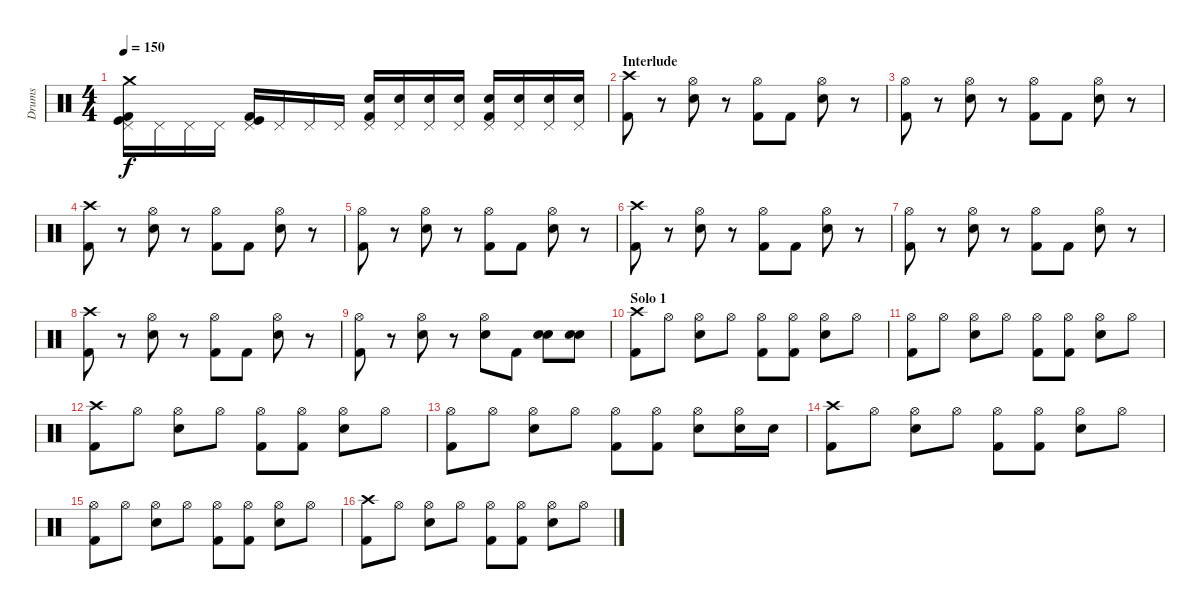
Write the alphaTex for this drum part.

\track ("Drums" "Drums") {instrument percussion}
\staff {score}
\articulation defaults
\ts (4 4)
\tempo 150
\clef neutral
\ks c
("Pedal Hi-Hat (hit)" "Kick (hit) 2" "Kick (hit)" "Crash medium (hit)").16{dy f} "Pedal Hi-Hat (hit)".16 "Pedal Hi-Hat (hit)".16 "Pedal Hi-Hat (hit)".16 ("Pedal Hi-Hat (hit)" "Kick (hit) 2" "Kick (hit)").16 "Pedal Hi-Hat (hit)".16 "Pedal Hi-Hat (hit)".16 "Pedal Hi-Hat (hit)".16 ("Pedal Hi-Hat (hit)" "Snare (hit) 2" "Kick (hit) 2").16 ("Pedal Hi-Hat (hit)" "Snare (hit) 2").16 ("Pedal Hi-Hat (hit)" "Snare (hit) 2").16 ("Pedal Hi-Hat (hit)" "Snare (hit) 2").16 ("Pedal Hi-Hat (hit)" "Snare (hit) 2" "Kick (hit) 2").16 ("Pedal Hi-Hat (hit)" "Snare (hit) 2").16 ("Pedal Hi-Hat (hit)" "Snare (hit) 2").16 ("Pedal Hi-Hat (hit)" "Snare (hit) 2").16 |
\section ("" "Interlude")
("Crash high (hit)" "Kick (hit) 2").8 r.8 ("Hi-Hat (open)" "Snare (hit) 2").8 r.8 ("Hi-Hat (open)" "Kick (hit) 2").8 "Kick (hit) 2".8 ("Hi-Hat (open)" "Snare (hit) 2").8 r.8 |
("Hi-Hat (open)" "Kick (hit) 2").8 r.8 ("Hi-Hat (open)" "Snare (hit) 2").8 r.8 ("Hi-Hat (open)" "Kick (hit) 2").8 "Kick (hit) 2".8 ("Hi-Hat (open)" "Snare (hit) 2").8 r.8 |
("Crash high (hit)" "Kick (hit) 2").8 r.8 ("Hi-Hat (open)" "Snare (hit) 2").8 r.8 ("Hi-Hat (open)" "Kick (hit) 2").8 "Kick (hit) 2".8 ("Hi-Hat (open)" "Snare (hit) 2").8 r.8 |
("Hi-Hat (open)" "Kick (hit) 2").8 r.8 ("Hi-Hat (open)" "Snare (hit) 2").8 r.8 ("Hi-Hat (open)" "Kick (hit) 2").8 "Kick (hit) 2".8 ("Hi-Hat (open)" "Snare (hit) 2").8 r.8 |
("Crash high (hit)" "Kick (hit) 2").8 r.8 ("Hi-Hat (open)" "Snare (hit) 2").8 r.8 ("Hi-Hat (open)" "Kick (hit) 2").8 "Kick (hit) 2".8 ("Hi-Hat (open)" "Snare (hit) 2").8 r.8 |
("Hi-Hat (open)" "Kick (hit) 2").8 r.8 ("Hi-Hat (open)" "Snare (hit) 2").8 r.8 ("Hi-Hat (open)" "Kick (hit) 2").8 "Kick (hit) 2".8 ("Hi-Hat (open)" "Snare (hit) 2").8 r.8 |
("Crash high (hit)" "Kick (hit) 2").8 r.8 ("Hi-Hat (open)" "Snare (hit) 2").8 r.8 ("Hi-Hat (open)" "Kick (hit) 2").8 "Kick (hit) 2".8 ("Hi-Hat (open)" "Snare (hit) 2").8 r.8 |
("Hi-Hat (open)" "Kick (hit) 2").8 r.8 ("Hi-Hat (open)" "Snare (hit) 2").8 r.8 ("Hi-Hat (open)" "Snare (hit) 2").8 "Kick (hit) 2".8 ("Electric Snare (hit)" "Snare (hit) 2").8 ("Electric Snare (hit)" "Snare (hit) 2").8 |
\section ("" "Solo 1")
("Crash high (hit)" "Kick (hit) 2").8 "Hi-Hat (open)".8 ("Hi-Hat (open)" "Snare (hit) 2").8 "Hi-Hat (open)".8 ("Hi-Hat (open)" "Kick (hit) 2").8 ("Hi-Hat (open)" "Kick (hit) 2").8 ("Hi-Hat (open)" "Snare (hit) 2").8 "Hi-Hat (open)".8 |
("Hi-Hat (open)" "Kick (hit) 2").8 "Hi-Hat (open)".8 ("Hi-Hat (open)" "Snare (hit) 2").8 "Hi-Hat (open)".8 ("Hi-Hat (open)" "Kick (hit) 2").8 ("Hi-Hat (open)" "Kick (hit) 2").8 ("Hi-Hat (open)" "Snare (hit) 2").8 "Hi-Hat (open)".8 |
("Crash high (hit)" "Kick (hit) 2").8 "Hi-Hat (open)".8 ("Hi-Hat (open)" "Snare (hit) 2").8 "Hi-Hat (open)".8 ("Hi-Hat (open)" "Kick (hit) 2").8 ("Hi-Hat (open)" "Kick (hit) 2").8 ("Hi-Hat (open)" "Snare (hit) 2").8 "Hi-Hat (open)".8 |
("Hi-Hat (open)" "Kick (hit) 2").8 "Hi-Hat (open)".8 ("Hi-Hat (open)" "Snare (hit) 2").8 "Hi-Hat (open)".8 ("Hi-Hat (open)" "Kick (hit) 2").8 ("Hi-Hat (open)" "Kick (hit) 2").8 ("Hi-Hat (open)" "Snare (hit) 2").8 ("Hi-Hat (open)" "Snare (hit) 2").16 "Snare (hit) 2".16 |
("Crash high (hit)" "Kick (hit) 2").8 "Hi-Hat (open)".8 ("Hi-Hat (open)" "Snare (hit) 2").8 "Hi-Hat (open)".8 ("Hi-Hat (open)" "Kick (hit) 2").8 ("Hi-Hat (open)" "Kick (hit) 2").8 ("Hi-Hat (open)" "Snare (hit) 2").8 "Hi-Hat (open)".8 |
("Hi-Hat (open)" "Kick (hit) 2").8 "Hi-Hat (open)".8 ("Hi-Hat (open)" "Snare (hit) 2").8 "Hi-Hat (open)".8 ("Hi-Hat (open)" "Kick (hit) 2").8 ("Hi-Hat (open)" "Kick (hit) 2").8 ("Hi-Hat (open)" "Snare (hit) 2").8 "Hi-Hat (open)".8 |
("Crash high (hit)" "Kick (hit) 2").8 "Hi-Hat (open)".8 ("Hi-Hat (open)" "Snare (hit) 2").8 "Hi-Hat (open)".8 ("Hi-Hat (open)" "Kick (hit) 2").8 ("Hi-Hat (open)" "Kick (hit) 2").8 ("Hi-Hat (open)" "Snare (hit) 2").8 "Hi-Hat (open)".8
